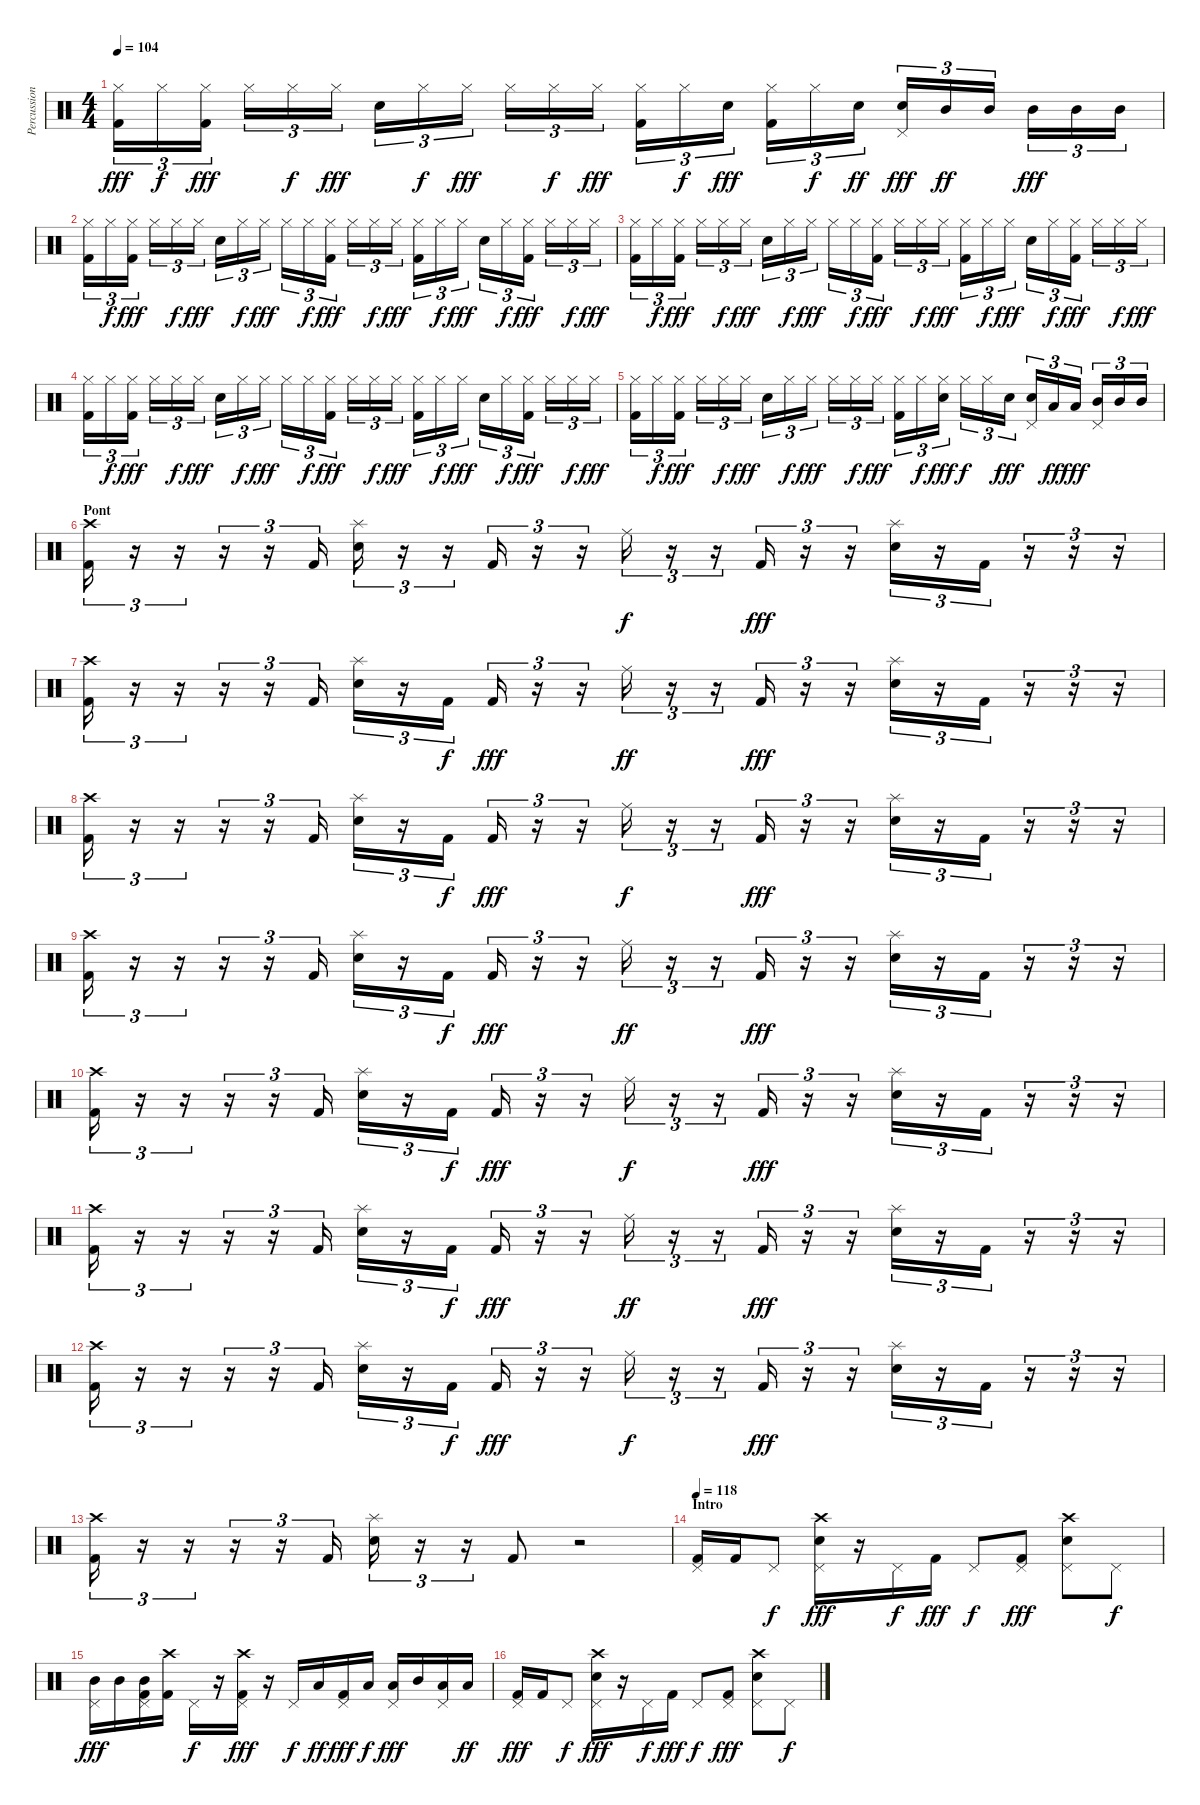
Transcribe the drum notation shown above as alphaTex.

\track ("Percussions" "Percussion") {instrument percussion}
\staff {score}
\articulation defaults
\ts (4 4)
\tempo 104
\clef neutral
\ks c
("Hi-Hat (closed)" "Kick (hit) 2").16{tu (3 2) dy fff} "Hi-Hat (closed)".16{tu (3 2) dy f} ("Hi-Hat (closed)" "Kick (hit) 2").16{tu (3 2) dy fff} "Hi-Hat (closed)".16{tu (3 2)} "Hi-Hat (closed)".16{tu (3 2) dy f} "Hi-Hat (closed)".16{tu (3 2) dy fff} "Snare (hit) 2".16{tu (3 2)} "Hi-Hat (closed)".16{tu (3 2) dy f} "Hi-Hat (closed)".16{tu (3 2) dy fff} "Hi-Hat (closed)".16{tu (3 2)} "Hi-Hat (closed)".16{tu (3 2) dy f} "Hi-Hat (closed)".16{tu (3 2) dy fff} ("Hi-Hat (closed)" "Kick (hit) 2").16{tu (3 2)} "Hi-Hat (closed)".16{tu (3 2) dy f} "Snare (hit) 2".16{tu (3 2) dy fff} ("Hi-Hat (closed)" "Kick (hit) 2").16{tu (3 2)} "Hi-Hat (closed)".16{tu (3 2) dy f} "Snare (hit) 2".16{tu (3 2) dy ff} ("Pedal Hi-Hat (hit)" "Snare (hit) 2").16{tu (3 2) dy fff} "Mid Tom (hit)".16{tu (3 2) dy ff} "Mid Tom (hit)".16{tu (3 2)} "Mid Tom (hit)".16{tu (3 2) dy fff} "Mid Tom (hit)".16{tu (3 2)} "Mid Tom (hit)".16{tu (3 2)} |
("Hi-Hat (closed)" "Kick (hit) 2").16{tu (3 2)} "Hi-Hat (closed)".16{tu (3 2) dy f} ("Hi-Hat (closed)" "Kick (hit) 2").16{tu (3 2) dy fff} "Hi-Hat (closed)".16{tu (3 2)} "Hi-Hat (closed)".16{tu (3 2) dy f} "Hi-Hat (closed)".16{tu (3 2) dy fff} "Snare (hit) 2".16{tu (3 2)} "Hi-Hat (closed)".16{tu (3 2) dy f} "Hi-Hat (closed)".16{tu (3 2) dy fff} "Hi-Hat (closed)".16{tu (3 2)} "Hi-Hat (closed)".16{tu (3 2) dy f} ("Hi-Hat (closed)" "Kick (hit) 2").16{tu (3 2) dy fff} "Hi-Hat (closed)".16{tu (3 2)} "Hi-Hat (closed)".16{tu (3 2) dy f} "Hi-Hat (closed)".16{tu (3 2) dy fff} ("Hi-Hat (closed)" "Kick (hit) 2").16{tu (3 2)} "Hi-Hat (closed)".16{tu (3 2) dy f} "Hi-Hat (closed)".16{tu (3 2) dy fff} "Snare (hit) 2".16{tu (3 2)} "Hi-Hat (closed)".16{tu (3 2) dy f} ("Hi-Hat (closed)" "Kick (hit) 2").16{tu (3 2) dy fff} "Hi-Hat (closed)".16{tu (3 2)} "Hi-Hat (closed)".16{tu (3 2) dy f} "Hi-Hat (closed)".16{tu (3 2) dy fff} |
("Hi-Hat (closed)" "Kick (hit) 2").16{tu (3 2)} "Hi-Hat (closed)".16{tu (3 2) dy f} ("Hi-Hat (closed)" "Kick (hit) 2").16{tu (3 2) dy fff} "Hi-Hat (closed)".16{tu (3 2)} "Hi-Hat (closed)".16{tu (3 2) dy f} "Hi-Hat (closed)".16{tu (3 2) dy fff} "Snare (hit) 2".16{tu (3 2)} "Hi-Hat (closed)".16{tu (3 2) dy f} "Hi-Hat (closed)".16{tu (3 2) dy fff} "Hi-Hat (closed)".16{tu (3 2)} "Hi-Hat (closed)".16{tu (3 2) dy f} ("Hi-Hat (closed)" "Kick (hit) 2").16{tu (3 2) dy fff} "Hi-Hat (closed)".16{tu (3 2)} "Hi-Hat (closed)".16{tu (3 2) dy f} "Hi-Hat (closed)".16{tu (3 2) dy fff} ("Hi-Hat (closed)" "Kick (hit) 2").16{tu (3 2)} "Hi-Hat (closed)".16{tu (3 2) dy f} "Hi-Hat (closed)".16{tu (3 2) dy fff} "Snare (hit) 2".16{tu (3 2)} "Hi-Hat (closed)".16{tu (3 2) dy f} ("Hi-Hat (closed)" "Kick (hit) 2").16{tu (3 2) dy fff} "Hi-Hat (closed)".16{tu (3 2)} "Hi-Hat (closed)".16{tu (3 2) dy f} "Hi-Hat (closed)".16{tu (3 2) dy fff} |
("Hi-Hat (closed)" "Kick (hit) 2").16{tu (3 2)} "Hi-Hat (closed)".16{tu (3 2) dy f} ("Hi-Hat (closed)" "Kick (hit) 2").16{tu (3 2) dy fff} "Hi-Hat (closed)".16{tu (3 2)} "Hi-Hat (closed)".16{tu (3 2) dy f} "Hi-Hat (closed)".16{tu (3 2) dy fff} "Snare (hit) 2".16{tu (3 2)} "Hi-Hat (closed)".16{tu (3 2) dy f} "Hi-Hat (closed)".16{tu (3 2) dy fff} "Hi-Hat (closed)".16{tu (3 2)} "Hi-Hat (closed)".16{tu (3 2) dy f} ("Hi-Hat (closed)" "Kick (hit) 2").16{tu (3 2) dy fff} "Hi-Hat (closed)".16{tu (3 2)} "Hi-Hat (closed)".16{tu (3 2) dy f} "Hi-Hat (closed)".16{tu (3 2) dy fff} ("Hi-Hat (closed)" "Kick (hit) 2").16{tu (3 2)} "Hi-Hat (closed)".16{tu (3 2) dy f} "Hi-Hat (closed)".16{tu (3 2) dy fff} "Snare (hit) 2".16{tu (3 2)} "Hi-Hat (closed)".16{tu (3 2) dy f} ("Hi-Hat (closed)" "Kick (hit) 2").16{tu (3 2) dy fff} "Hi-Hat (closed)".16{tu (3 2)} "Hi-Hat (closed)".16{tu (3 2) dy f} "Hi-Hat (closed)".16{tu (3 2) dy fff} |
("Hi-Hat (closed)" "Kick (hit) 2").16{tu (3 2)} "Hi-Hat (closed)".16{tu (3 2) dy f} ("Hi-Hat (closed)" "Kick (hit) 2").16{tu (3 2) dy fff} "Hi-Hat (closed)".16{tu (3 2)} "Hi-Hat (closed)".16{tu (3 2) dy f} "Hi-Hat (closed)".16{tu (3 2) dy fff} "Snare (hit) 2".16{tu (3 2)} "Hi-Hat (closed)".16{tu (3 2) dy f} "Hi-Hat (closed)".16{tu (3 2) dy fff} "Hi-Hat (closed)".16{tu (3 2)} "Hi-Hat (closed)".16{tu (3 2) dy f} "Hi-Hat (closed)".16{tu (3 2) dy fff} ("Hi-Hat (closed)" "Kick (hit) 2").16{tu (3 2)} "Hi-Hat (closed)".16{tu (3 2) dy f} ("Hi-Hat (closed)" "Snare (hit) 2").16{tu (3 2) dy fff} "Hi-Hat (closed)".16{tu (3 2) dy f} "Hi-Hat (closed)".16{tu (3 2)} "Snare (hit) 2".16{tu (3 2) dy fff} ("Pedal Hi-Hat (hit)" "Snare (hit) 2").16{tu (3 2)} "Low Tom (hit)".16{tu (3 2) dy ff} "Low Tom (hit)".16{tu (3 2) dy fff} ("Pedal Hi-Hat (hit)" "Mid Tom (hit)").16{tu (3 2)} "Mid Tom (hit)".16{tu (3 2)} "Mid Tom (hit)".16{tu (3 2)} |
\section ("" "Pont")
("Crash high (hit)" "Kick (hit) 2").16{tu (3 2)} r.16{tu (3 2)} r.16{tu (3 2)} r.16{tu (3 2)} r.16{tu (3 2)} "Kick (hit) 2".16{tu (3 2)} ("Splash (hit)" "Snare (hit) 2").16{tu (3 2)} r.16{tu (3 2)} r.16{tu (3 2)} "Kick (hit) 2".16{tu (3 2)} r.16{tu (3 2)} r.16{tu (3 2)} "Ride (middle)".16{tu (3 2) dy f} r.16{tu (3 2)} r.16{tu (3 2)} "Kick (hit) 2".16{tu (3 2) dy fff} r.16{tu (3 2)} r.16{tu (3 2)} ("Splash (hit)" "Snare (hit) 2").16{tu (3 2)} r.16{tu (3 2)} "Kick (hit) 2".16{tu (3 2)} r.16{tu (3 2)} r.16{tu (3 2)} r.16{tu (3 2)} |
("Crash high (hit)" "Kick (hit) 2").16{tu (3 2)} r.16{tu (3 2)} r.16{tu (3 2)} r.16{tu (3 2)} r.16{tu (3 2)} "Kick (hit) 2".16{tu (3 2)} ("Splash (hit)" "Snare (hit) 2").16{tu (3 2)} r.16{tu (3 2)} "Kick (hit) 2".16{tu (3 2) dy f} "Kick (hit) 2".16{tu (3 2) dy fff} r.16{tu (3 2)} r.16{tu (3 2)} "Ride (middle)".16{tu (3 2) dy ff} r.16{tu (3 2)} r.16{tu (3 2)} "Kick (hit) 2".16{tu (3 2) dy fff} r.16{tu (3 2)} r.16{tu (3 2)} ("Splash (hit)" "Snare (hit) 2").16{tu (3 2)} r.16{tu (3 2)} "Kick (hit) 2".16{tu (3 2)} r.16{tu (3 2)} r.16{tu (3 2)} r.16{tu (3 2)} |
("Crash high (hit)" "Kick (hit) 2").16{tu (3 2)} r.16{tu (3 2)} r.16{tu (3 2)} r.16{tu (3 2)} r.16{tu (3 2)} "Kick (hit) 2".16{tu (3 2)} ("Splash (hit)" "Snare (hit) 2").16{tu (3 2)} r.16{tu (3 2)} "Kick (hit) 2".16{tu (3 2) dy f} "Kick (hit) 2".16{tu (3 2) dy fff} r.16{tu (3 2)} r.16{tu (3 2)} "Ride (middle)".16{tu (3 2) dy f} r.16{tu (3 2)} r.16{tu (3 2)} "Kick (hit) 2".16{tu (3 2) dy fff} r.16{tu (3 2)} r.16{tu (3 2)} ("Splash (hit)" "Snare (hit) 2").16{tu (3 2)} r.16{tu (3 2)} "Kick (hit) 2".16{tu (3 2)} r.16{tu (3 2)} r.16{tu (3 2)} r.16{tu (3 2)} |
("Crash high (hit)" "Kick (hit) 2").16{tu (3 2)} r.16{tu (3 2)} r.16{tu (3 2)} r.16{tu (3 2)} r.16{tu (3 2)} "Kick (hit) 2".16{tu (3 2)} ("Splash (hit)" "Snare (hit) 2").16{tu (3 2)} r.16{tu (3 2)} "Kick (hit) 2".16{tu (3 2) dy f} "Kick (hit) 2".16{tu (3 2) dy fff} r.16{tu (3 2)} r.16{tu (3 2)} "Ride (middle)".16{tu (3 2) dy ff} r.16{tu (3 2)} r.16{tu (3 2)} "Kick (hit) 2".16{tu (3 2) dy fff} r.16{tu (3 2)} r.16{tu (3 2)} ("Splash (hit)" "Snare (hit) 2").16{tu (3 2)} r.16{tu (3 2)} "Kick (hit) 2".16{tu (3 2)} r.16{tu (3 2)} r.16{tu (3 2)} r.16{tu (3 2)} |
("Crash high (hit)" "Kick (hit) 2").16{tu (3 2)} r.16{tu (3 2)} r.16{tu (3 2)} r.16{tu (3 2)} r.16{tu (3 2)} "Kick (hit) 2".16{tu (3 2)} ("Splash (hit)" "Snare (hit) 2").16{tu (3 2)} r.16{tu (3 2)} "Kick (hit) 2".16{tu (3 2) dy f} "Kick (hit) 2".16{tu (3 2) dy fff} r.16{tu (3 2)} r.16{tu (3 2)} "Ride (middle)".16{tu (3 2) dy f} r.16{tu (3 2)} r.16{tu (3 2)} "Kick (hit) 2".16{tu (3 2) dy fff} r.16{tu (3 2)} r.16{tu (3 2)} ("Splash (hit)" "Snare (hit) 2").16{tu (3 2)} r.16{tu (3 2)} "Kick (hit) 2".16{tu (3 2)} r.16{tu (3 2)} r.16{tu (3 2)} r.16{tu (3 2)} |
("Crash high (hit)" "Kick (hit) 2").16{tu (3 2)} r.16{tu (3 2)} r.16{tu (3 2)} r.16{tu (3 2)} r.16{tu (3 2)} "Kick (hit) 2".16{tu (3 2)} ("Splash (hit)" "Snare (hit) 2").16{tu (3 2)} r.16{tu (3 2)} "Kick (hit) 2".16{tu (3 2) dy f} "Kick (hit) 2".16{tu (3 2) dy fff} r.16{tu (3 2)} r.16{tu (3 2)} "Ride (middle)".16{tu (3 2) dy ff} r.16{tu (3 2)} r.16{tu (3 2)} "Kick (hit) 2".16{tu (3 2) dy fff} r.16{tu (3 2)} r.16{tu (3 2)} ("Splash (hit)" "Snare (hit) 2").16{tu (3 2)} r.16{tu (3 2)} "Kick (hit) 2".16{tu (3 2)} r.16{tu (3 2)} r.16{tu (3 2)} r.16{tu (3 2)} |
("Crash high (hit)" "Kick (hit) 2").16{tu (3 2)} r.16{tu (3 2)} r.16{tu (3 2)} r.16{tu (3 2)} r.16{tu (3 2)} "Kick (hit) 2".16{tu (3 2)} ("Splash (hit)" "Snare (hit) 2").16{tu (3 2)} r.16{tu (3 2)} "Kick (hit) 2".16{tu (3 2) dy f} "Kick (hit) 2".16{tu (3 2) dy fff} r.16{tu (3 2)} r.16{tu (3 2)} "Ride (middle)".16{tu (3 2) dy f} r.16{tu (3 2)} r.16{tu (3 2)} "Kick (hit) 2".16{tu (3 2) dy fff} r.16{tu (3 2)} r.16{tu (3 2)} ("Splash (hit)" "Snare (hit) 2").16{tu (3 2)} r.16{tu (3 2)} "Kick (hit) 2".16{tu (3 2)} r.16{tu (3 2)} r.16{tu (3 2)} r.16{tu (3 2)} |
("Crash high (hit)" "Kick (hit) 2").16{tu (3 2)} r.16{tu (3 2)} r.16{tu (3 2)} r.16{tu (3 2)} r.16{tu (3 2)} "Kick (hit) 2".16{tu (3 2)} ("Splash (hit)" "Snare (hit) 2").16{tu (3 2)} r.16{tu (3 2)} r.16{tu (3 2)} "Kick (hit) 2".8 r.2 |
\section ("" "Intro")
\tempo 118
("Pedal Hi-Hat (hit)" "Kick (hit) 2").16 "Kick (hit) 2".16 "Pedal Hi-Hat (hit)".8{dy f} ("Pedal Hi-Hat (hit)" "Crash high (hit)" "Snare (hit) 2").16{dy fff} r.16 "Pedal Hi-Hat (hit)".16{dy f} "Kick (hit) 2".16{dy fff} "Pedal Hi-Hat (hit)".8{dy f} ("Pedal Hi-Hat (hit)" "Kick (hit) 2").8{dy fff} ("Pedal Hi-Hat (hit)" "Crash high (hit)" "Snare (hit) 2").8 "Pedal Hi-Hat (hit)".8{dy f} |
("Pedal Hi-Hat (hit)" "Mid Tom (hit)").16{dy fff} "Mid Tom (hit)".16 ("Pedal Hi-Hat (hit)" "Mid Tom (hit)" "Kick (hit) 2").16 ("Crash high (hit)" "Kick (hit) 2").16 "Pedal Hi-Hat (hit)".16{dy f} r.16 ("Pedal Hi-Hat (hit)" "Crash high (hit)" "Kick (hit) 2").16{dy fff} r.16 "Pedal Hi-Hat (hit)".16{dy f} "Low Tom (hit)".16{dy ff} ("Pedal Hi-Hat (hit)" "Kick (hit) 2").16{dy fff} "Low Tom (hit)".16{dy f} ("Pedal Hi-Hat (hit)" "Low Tom (hit)").16{dy fff} "Mid Tom (hit)".16 ("Pedal Hi-Hat (hit)" "Low Tom (hit)").16 "Low Floor Tom (hit)".16{dy ff} |
("Pedal Hi-Hat (hit)" "Kick (hit) 2").16{dy fff} "Kick (hit) 2".16 "Pedal Hi-Hat (hit)".8{dy f} ("Pedal Hi-Hat (hit)" "Crash high (hit)" "Snare (hit) 2").16{dy fff} r.16 "Pedal Hi-Hat (hit)".16{dy f} "Kick (hit) 2".16{dy fff} "Pedal Hi-Hat (hit)".8{dy f} ("Pedal Hi-Hat (hit)" "Kick (hit) 2").8{dy fff} ("Pedal Hi-Hat (hit)" "Crash high (hit)" "Snare (hit) 2").8 "Pedal Hi-Hat (hit)".8{dy f}
